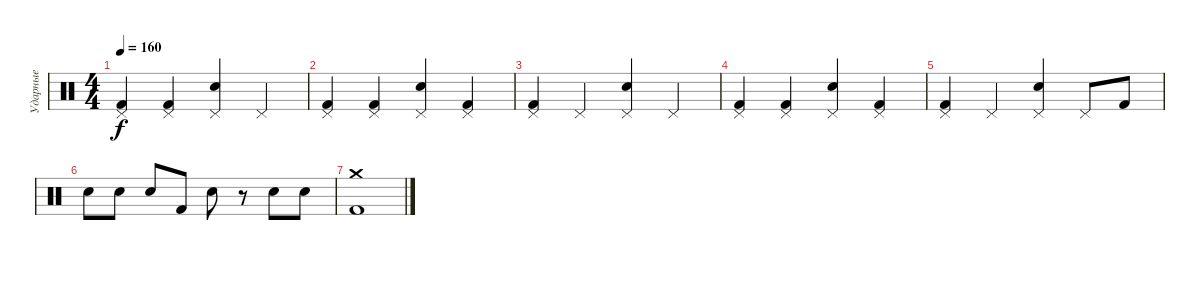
\track ("Ударные" "Ударные") {instrument percussion}
\staff {score}
\articulation defaults
\ts (4 4)
\tempo 160
\clef neutral
\ks c
("Pedal Hi-Hat (hit)" "Kick (hit) 2").4{dy f} ("Pedal Hi-Hat (hit)" "Kick (hit) 2").4 ("Electric Snare (hit)" "Pedal Hi-Hat (hit)").4 "Pedal Hi-Hat (hit)".4 |
("Pedal Hi-Hat (hit)" "Kick (hit) 2").4 ("Pedal Hi-Hat (hit)" "Kick (hit) 2").4 ("Electric Snare (hit)" "Pedal Hi-Hat (hit)").4 ("Pedal Hi-Hat (hit)" "Kick (hit) 2").4 |
("Pedal Hi-Hat (hit)" "Kick (hit) 2").4 "Pedal Hi-Hat (hit)".4 ("Electric Snare (hit)" "Pedal Hi-Hat (hit)").4 "Pedal Hi-Hat (hit)".4 |
("Pedal Hi-Hat (hit)" "Kick (hit) 2").4 ("Pedal Hi-Hat (hit)" "Kick (hit) 2").4 ("Electric Snare (hit)" "Pedal Hi-Hat (hit)").4 ("Pedal Hi-Hat (hit)" "Kick (hit) 2").4 |
("Pedal Hi-Hat (hit)" "Kick (hit) 2").4 "Pedal Hi-Hat (hit)".4 ("Electric Snare (hit)" "Pedal Hi-Hat (hit)").4 "Pedal Hi-Hat (hit)".8 "Kick (hit) 2".8 |
"Electric Snare (hit)".8 "Electric Snare (hit)".8 "Electric Snare (hit)".8 "Kick (hit) 2".8 "Electric Snare (hit)".8 r.8 "Electric Snare (hit)".8 "Electric Snare (hit)".8 |
("Crash medium (hit)" "Kick (hit) 2").1
